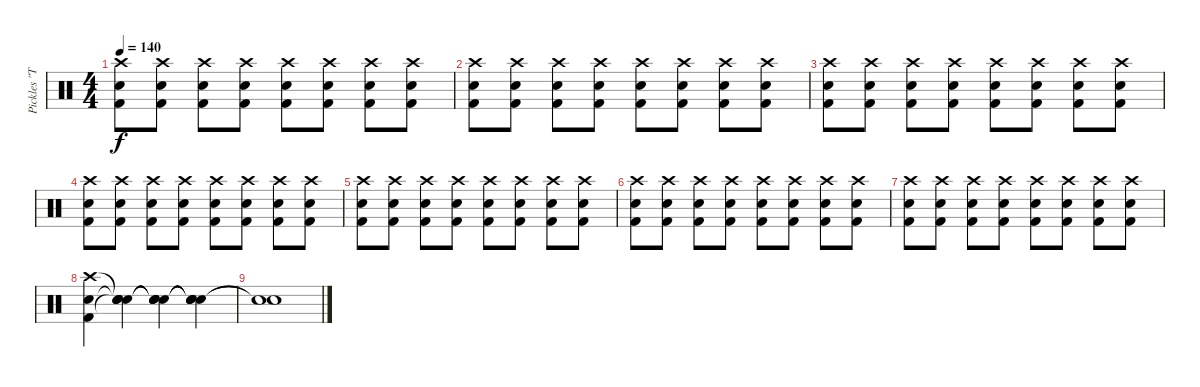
\track ("Pickles \"The Drummer\"" "Pickles \"T") {instrument percussion}
\staff {score}
\articulation defaults
\ts (4 4)
\tempo 140
\clef neutral
\ks c
("Crash high (hit)" "Electric Snare (hit)" "Kick (hit) 2").8{dy f} ("Crash high (hit)" "Electric Snare (hit)" "Kick (hit) 2").8 ("Crash high (hit)" "Electric Snare (hit)" "Kick (hit) 2").8 ("Crash high (hit)" "Electric Snare (hit)" "Kick (hit) 2").8 ("Crash high (hit)" "Electric Snare (hit)" "Kick (hit) 2").8 ("Crash high (hit)" "Electric Snare (hit)" "Kick (hit) 2").8 ("Crash high (hit)" "Electric Snare (hit)" "Kick (hit) 2").8 ("Crash high (hit)" "Electric Snare (hit)" "Kick (hit) 2").8 |
("Crash high (hit)" "Electric Snare (hit)" "Kick (hit) 2").8 ("Crash high (hit)" "Electric Snare (hit)" "Kick (hit) 2").8 ("Crash high (hit)" "Electric Snare (hit)" "Kick (hit) 2").8 ("Crash high (hit)" "Electric Snare (hit)" "Kick (hit) 2").8 ("Crash high (hit)" "Electric Snare (hit)" "Kick (hit) 2").8 ("Crash high (hit)" "Electric Snare (hit)" "Kick (hit) 2").8 ("Crash high (hit)" "Electric Snare (hit)" "Kick (hit) 2").8 ("Crash high (hit)" "Electric Snare (hit)" "Kick (hit) 2").8 |
("Crash high (hit)" "Electric Snare (hit)" "Kick (hit) 2").8 ("Crash high (hit)" "Electric Snare (hit)" "Kick (hit) 2").8 ("Crash high (hit)" "Electric Snare (hit)" "Kick (hit) 2").8 ("Crash high (hit)" "Electric Snare (hit)" "Kick (hit) 2").8 ("Crash high (hit)" "Electric Snare (hit)" "Kick (hit) 2").8 ("Crash high (hit)" "Electric Snare (hit)" "Kick (hit) 2").8 ("Crash high (hit)" "Electric Snare (hit)" "Kick (hit) 2").8 ("Crash high (hit)" "Electric Snare (hit)" "Kick (hit) 2").8 |
("Crash high (hit)" "Electric Snare (hit)" "Kick (hit) 2").8 ("Crash high (hit)" "Electric Snare (hit)" "Kick (hit) 2").8 ("Crash high (hit)" "Electric Snare (hit)" "Kick (hit) 2").8 ("Crash high (hit)" "Electric Snare (hit)" "Kick (hit) 2").8 ("Crash high (hit)" "Electric Snare (hit)" "Kick (hit) 2").8 ("Crash high (hit)" "Electric Snare (hit)" "Kick (hit) 2").8 ("Crash high (hit)" "Electric Snare (hit)" "Kick (hit) 2").8 ("Crash high (hit)" "Electric Snare (hit)" "Kick (hit) 2").8 |
("Crash high (hit)" "Electric Snare (hit)" "Kick (hit) 2").8 ("Crash high (hit)" "Electric Snare (hit)" "Kick (hit) 2").8 ("Crash high (hit)" "Electric Snare (hit)" "Kick (hit) 2").8 ("Crash high (hit)" "Electric Snare (hit)" "Kick (hit) 2").8 ("Crash high (hit)" "Electric Snare (hit)" "Kick (hit) 2").8 ("Crash high (hit)" "Electric Snare (hit)" "Kick (hit) 2").8 ("Crash high (hit)" "Electric Snare (hit)" "Kick (hit) 2").8 ("Crash high (hit)" "Electric Snare (hit)" "Kick (hit) 2").8 |
("Crash high (hit)" "Electric Snare (hit)" "Kick (hit) 2").8 ("Crash high (hit)" "Electric Snare (hit)" "Kick (hit) 2").8 ("Crash high (hit)" "Electric Snare (hit)" "Kick (hit) 2").8 ("Crash high (hit)" "Electric Snare (hit)" "Kick (hit) 2").8 ("Crash high (hit)" "Electric Snare (hit)" "Kick (hit) 2").8 ("Crash high (hit)" "Electric Snare (hit)" "Kick (hit) 2").8 ("Crash high (hit)" "Electric Snare (hit)" "Kick (hit) 2").8 ("Crash high (hit)" "Electric Snare (hit)" "Kick (hit) 2").8 |
("Crash high (hit)" "Electric Snare (hit)" "Kick (hit) 2").8 ("Crash high (hit)" "Electric Snare (hit)" "Kick (hit) 2").8 ("Crash high (hit)" "Electric Snare (hit)" "Kick (hit) 2").8 ("Crash high (hit)" "Electric Snare (hit)" "Kick (hit) 2").8 ("Crash high (hit)" "Electric Snare (hit)" "Kick (hit) 2").8 ("Crash high (hit)" "Electric Snare (hit)" "Kick (hit) 2").8 ("Crash high (hit)" "Electric Snare (hit)" "Kick (hit) 2").8 ("Crash high (hit)" "Electric Snare (hit)" "Kick (hit) 2").8 |
("Crash high (hit)" "Electric Snare (hit)" "Kick (hit) 2").4 ("Snare (hit)"{t} "Snare (hit)"{t} "Snare (hit)"{t} "Snare (hit)").4 ("Snare (hit)"{t} "Snare (hit)"{t} "Snare (hit)"{t} "Snare (hit)"{t}).4 ("Snare (hit)"{t} "Snare (hit)"{t} "Snare (hit)"{t} "Snare (hit)"{t}).4 |
("Snare (hit)"{t} "Snare (hit)"{t}).1
